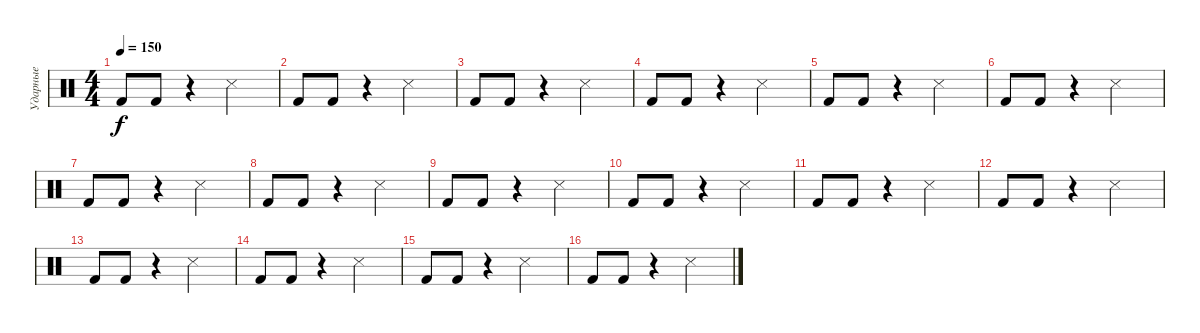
\track ("Ударные" "Ударные") {instrument percussion}
\staff {score}
\articulation defaults
\ts (4 4)
\tempo 150
\clef neutral
\ks c "Kick (hit) 2".8{dy f} "Kick (hit) 2".8
r.4 "Snare (side stick) 3".2 |
"Kick (hit) 2".8 "Kick (hit) 2".8 r.4 "Snare (side stick) 3".2 |
"Kick (hit) 2".8 "Kick (hit) 2".8 r.4 "Snare (side stick) 3".2 |
"Kick (hit) 2".8 "Kick (hit) 2".8 r.4 "Snare (side stick) 3".2 |
"Kick (hit) 2".8 "Kick (hit) 2".8 r.4 "Snare (side stick) 3".2 |
"Kick (hit) 2".8 "Kick (hit) 2".8 r.4 "Snare (side stick) 3".2 |
"Kick (hit) 2".8 "Kick (hit) 2".8 r.4 "Snare (side stick) 3".2 |
"Kick (hit) 2".8 "Kick (hit) 2".8 r.4 "Snare (side stick) 3".2 |
"Kick (hit) 2".8 "Kick (hit) 2".8 r.4 "Snare (side stick) 3".2 |
"Kick (hit) 2".8 "Kick (hit) 2".8 r.4 "Snare (side stick) 3".2 |
"Kick (hit) 2".8 "Kick (hit) 2".8 r.4 "Snare (side stick) 3".2 |
"Kick (hit) 2".8 "Kick (hit) 2".8 r.4 "Snare (side stick) 3".2 |
"Kick (hit) 2".8 "Kick (hit) 2".8 r.4 "Snare (side stick) 3".2 |
"Kick (hit) 2".8 "Kick (hit) 2".8 r.4 "Snare (side stick) 3".2 |
"Kick (hit) 2".8 "Kick (hit) 2".8 r.4 "Snare (side stick) 3".2 |
"Kick (hit) 2".8 "Kick (hit) 2".8 r.4 "Snare (side stick) 3".2
